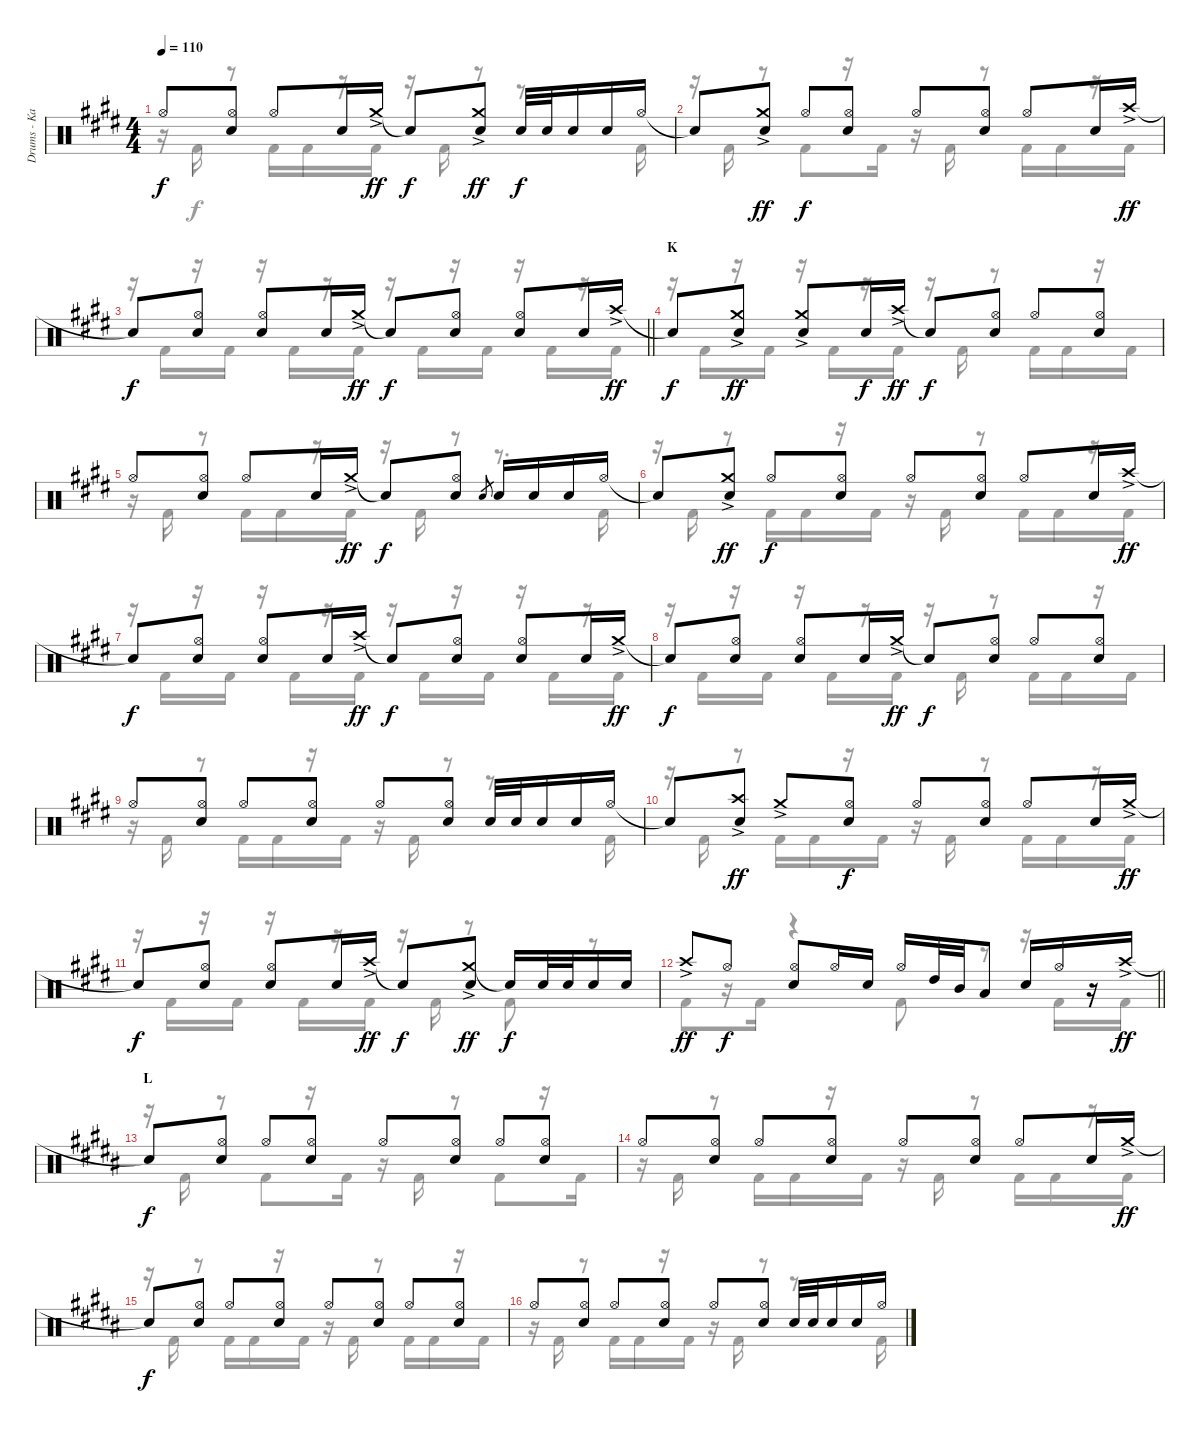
\track ("Drums - Kai" "Drums - Ka") {instrument percussion}
\staff {score}
\articulation defaults
\voice
\ts (4 4)
\tempo 110
\clef neutral
\ks e "Hi-Hat (open)".8{dy f}
("Hi-Hat (open)" "Snare (hit) 2").8 "Hi-Hat (open)".8 "Snare (hit) 2".16 "Crash medium (hit)"{ac}.16{dy ff} "Snare (hit)"{t}.8{dy f} ("Crash medium (hit)"{ac} "Snare (hit) 2").8{dy ff} "Snare (hit) 2".32{dy f} "Snare (hit) 2".32 "Snare (hit) 2".16 "Snare (hit) 2".16 "Hi-Hat (open)".16 |
"Snare (hit)"{t}.8 ("Crash medium (hit)"{ac} "Snare (hit) 2").8{dy ff} "Hi-Hat (open)".8{dy f} ("Hi-Hat (open)" "Snare (hit) 2").8 "Hi-Hat (open)".8 ("Hi-Hat (open)" "Snare (hit) 2").8 "Hi-Hat (open)".8 "Snare (hit) 2".16 "Crash high (hit)"{ac}.16{dy ff} |
\barLineRight lightlight "Snare (hit)"{t}.8{dy f}
("Hi-Hat (open)" "Snare (hit) 2").8 ("Hi-Hat (open)" "Snare (hit) 2").8 "Snare (hit) 2".16 "Crash medium (hit)"{ac}.16{dy ff} "Snare (hit)"{t}.8{dy f} ("Hi-Hat (open)" "Snare (hit) 2").8 ("Hi-Hat (open)" "Snare (hit) 2").8 "Snare (hit) 2".16 "Crash high (hit)"{ac}.16{dy ff} |
\section ("" "K")
"Snare (hit)"{t}.8{dy f} ("Crash medium (hit)"{ac} "Snare (hit) 2").8{dy ff} ("Crash medium (hit)"{ac} "Snare (hit) 2").8 "Snare (hit) 2".16{dy f} "Crash high (hit)"{ac}.16{dy ff} "Snare (hit)"{t}.8{dy f} ("Hi-Hat (open)" "Snare (hit) 2").8 "Hi-Hat (open)".8 ("Hi-Hat (open)" "Snare (hit) 2").8 |
"Hi-Hat (open)".8 ("Hi-Hat (open)" "Snare (hit) 2").8 "Hi-Hat (open)".8 "Snare (hit) 2".16 "Crash medium (hit)"{ac}.16{dy ff} "Snare (hit)"{t}.8{dy f} ("Hi-Hat (open)" "Snare (hit) 2").8 "Snare (hit) 2".8{gr} "Snare (hit) 2".16 "Snare (hit) 2".16 "Snare (hit) 2".16 "Hi-Hat (open)".16 |
"Snare (hit)"{t}.8 ("Crash medium (hit)"{ac} "Snare (hit) 2").8{dy ff} "Hi-Hat (open)".8{dy f} ("Hi-Hat (open)" "Snare (hit) 2").8 "Hi-Hat (open)".8 ("Hi-Hat (open)" "Snare (hit) 2").8 "Hi-Hat (open)".8 "Snare (hit) 2".16 "Crash high (hit)"{ac}.16{dy ff} |
"Snare (hit)"{t}.8{dy f} ("Hi-Hat (open)" "Snare (hit) 2").8 ("Hi-Hat (open)" "Snare (hit) 2").8 "Snare (hit) 2".16 "Crash high (hit)"{ac}.16{dy ff} "Snare (hit)"{t}.8{dy f} ("Hi-Hat (open)" "Snare (hit) 2").8 ("Hi-Hat (open)" "Snare (hit) 2").8 "Snare (hit) 2".16 "Crash medium (hit)"{ac}.16{dy ff} |
"Snare (hit)"{t}.8{dy f} ("Hi-Hat (open)" "Snare (hit) 2").8 ("Hi-Hat (open)" "Snare (hit) 2").8 "Snare (hit) 2".16 "Crash medium (hit)"{ac}.16{dy ff} "Snare (hit)"{t}.8{dy f} ("Hi-Hat (open)" "Snare (hit) 2").8 "Hi-Hat (open)".8 ("Hi-Hat (open)" "Snare (hit) 2").8 |
"Hi-Hat (open)".8 ("Hi-Hat (open)" "Snare (hit) 2").8 "Hi-Hat (open)".8 ("Hi-Hat (open)" "Snare (hit) 2").8 "Hi-Hat (open)".8 ("Hi-Hat (open)" "Snare (hit) 2").8 "Snare (hit) 2".32 "Snare (hit) 2".32 "Snare (hit) 2".16 "Snare (hit) 2".16 "Hi-Hat (open)".16 |
"Snare (hit)"{t}.8 ("Crash high (hit)"{ac} "Snare (hit) 2").8{dy ff} "Crash medium (hit)"{ac}.8 ("Hi-Hat (open)" "Snare (hit) 2").8{dy f} "Hi-Hat (open)".8 ("Hi-Hat (open)" "Snare (hit) 2").8 "Hi-Hat (open)".8 "Snare (hit) 2".16 "Crash medium (hit)"{ac}.16{dy ff} |
"Snare (hit)"{t}.8{dy f} ("Hi-Hat (open)" "Snare (hit) 2").8 ("Hi-Hat (open)" "Snare (hit) 2").8 "Snare (hit) 2".16 "Crash high (hit)"{ac}.16{dy ff} "Snare (hit)"{t}.8{dy f} ("Crash medium (hit)"{ac} "Snare (hit) 2").8{dy ff} "Snare (hit)"{t}.16{dy f} "Snare (hit) 2".32 "Snare (hit) 2".32 "Snare (hit) 2".16 "Snare (hit) 2".16 |
\barLineRight lightlight "Crash high (hit)"{ac}.8{dy ff} "Hi-Hat (open)".8{dy f}
("Hi-Hat (open)" "Snare (hit) 2").8 "Hi-Hat (open)".16 "Snare (hit) 2".16 "Hi-Hat (open)".16 "High Tom (hit)".32 "Mid Tom (hit)".32 "Low Tom (hit)".8 "Snare (hit) 2".16 "Hi-Hat (open)".16 r.16 "Crash high (hit)"{ac}.16{dy ff} |
\section ("" "L")
\ks b "Snare (hit)"{t}.8{dy f}
("Hi-Hat (open)" "Snare (hit) 2").8 "Hi-Hat (open)".8 ("Hi-Hat (open)" "Snare (hit) 2").8 "Hi-Hat (open)".8 ("Hi-Hat (open)" "Snare (hit) 2").8 "Hi-Hat (open)".8 ("Hi-Hat (open)" "Snare (hit) 2").8 |
"Hi-Hat (open)".8 ("Hi-Hat (open)" "Snare (hit) 2").8 "Hi-Hat (open)".8 ("Hi-Hat (open)" "Snare (hit) 2").8 "Hi-Hat (open)".8 ("Hi-Hat (open)" "Snare (hit) 2").8 "Hi-Hat (open)".8 "Snare (hit) 2".16 "Crash medium (hit)"{ac}.16{dy ff} |
"Snare (hit)"{t}.8{dy f} ("Hi-Hat (open)" "Snare (hit) 2").8 "Hi-Hat (open)".8 ("Hi-Hat (open)" "Snare (hit) 2").8 "Hi-Hat (open)".8 ("Hi-Hat (open)" "Snare (hit) 2").8 "Hi-Hat (open)".8 ("Hi-Hat (open)" "Snare (hit) 2").8 |
"Hi-Hat (open)".8 ("Hi-Hat (open)" "Snare (hit) 2").8 "Hi-Hat (open)".8 ("Hi-Hat (open)" "Snare (hit) 2").8 "Hi-Hat (open)".8 ("Hi-Hat (open)" "Snare (hit) 2").8 "Snare (hit) 2".32 "Snare (hit) 2".32 "Snare (hit) 2".16 "Snare (hit) 2".16 "Hi-Hat (open)".16
\voice
\clef neutral
\ottava regular
\simile none
\ks e
r.16{dy f} "Kick (hit) 2".16 r.8 "Kick (hit) 2".16 "Kick (hit) 2".16 r.16 "Kick (hit) 2".16 r.16 "Kick (hit) 2".16 r.8 r.8{d} "Kick (hit) 2".16 |
r.16 "Kick (hit) 2".16 r.8 "Kick (hit) 2".8 r.16 "Kick (hit) 2".16 r.16 "Kick (hit) 2".16 r.8 "Kick (hit) 2".16 "Kick (hit) 2".16 r.16 "Kick (hit) 2".16 |
\barLineRight lightlight
r.16 "Kick (hit) 2".16 r.16 "Kick (hit) 2".16 r.16 "Kick (hit) 2".16 r.16 "Kick (hit) 2".16 r.16 "Kick (hit) 2".16 r.16 "Kick (hit) 2".16 r.16 "Kick (hit) 2".16 r.16 "Kick (hit) 2".16 |
r.16 "Kick (hit) 2".16 r.16 "Kick (hit) 2".16 r.16 "Kick (hit) 2".16 r.16 "Kick (hit) 2".16 r.16 "Kick (hit) 2".16 r.8 "Kick (hit) 2".16 "Kick (hit) 2".16 r.16 "Kick (hit) 2".16 |
r.16 "Kick (hit) 2".16 r.8 "Kick (hit) 2".16 "Kick (hit) 2".16 r.16 "Kick (hit) 2".16 r.16 "Kick (hit) 2".16 r.8 r.8{d} "Kick (hit) 2".16 |
r.16 "Kick (hit) 2".16 r.8 "Kick (hit) 2".16 "Kick (hit) 2".16 r.16 "Kick (hit) 2".16 r.16 "Kick (hit) 2".16 r.8 "Kick (hit) 2".16 "Kick (hit) 2".16 r.16 "Kick (hit) 2".16 |
r.16 "Kick (hit) 2".16 r.16 "Kick (hit) 2".16 r.16 "Kick (hit) 2".16 r.16 "Kick (hit) 2".16 r.16 "Kick (hit) 2".16 r.16 "Kick (hit) 2".16 r.16 "Kick (hit) 2".16 r.16 "Kick (hit) 2".16 |
r.16 "Kick (hit) 2".16 r.16 "Kick (hit) 2".16 r.16 "Kick (hit) 2".16 r.16 "Kick (hit) 2".16 r.16 "Kick (hit) 2".16 r.8 "Kick (hit) 2".16 "Kick (hit) 2".16 r.16 "Kick (hit) 2".16 |
r.16 "Kick (hit) 2".16 r.8 "Kick (hit) 2".16 "Kick (hit) 2".16 r.16 "Kick (hit) 2".16 r.16 "Kick (hit) 2".16 r.8 r.8{d} "Kick (hit) 2".16 |
r.16 "Kick (hit) 2".16 r.8 "Kick (hit) 2".16 "Kick (hit) 2".16 r.16 "Kick (hit) 2".16 r.16 "Kick (hit) 2".16 r.8 "Kick (hit) 2".16 "Kick (hit) 2".16 r.16 "Kick (hit) 2".16 |
r.16 "Kick (hit) 2".16 r.16 "Kick (hit) 2".16 r.16 "Kick (hit) 2".16 r.16 "Kick (hit) 2".16 r.16 "Kick (hit) 2".16 r.8 "Kick (hit) 2".8 r.8 |
\barLineRight lightlight "Kick (hit) 2".8
r.16 "Kick (hit) 2".16 r.4 "Kick (hit) 2".8 r.8 r.16 "Kick (hit) 2".16 r.16 "Kick (hit) 2".16 |
\ks b
r.16 "Kick (hit) 2".16 r.8 "Kick (hit) 2".8 r.16 "Kick (hit) 2".16 r.16 "Kick (hit) 2".16 r.8 "Kick (hit) 2".8 r.16 "Kick (hit) 2".16 |
r.16 "Kick (hit) 2".16 r.8 "Kick (hit) 2".16 "Kick (hit) 2".16 r.16 "Kick (hit) 2".16 r.16 "Kick (hit) 2".16 r.8 "Kick (hit) 2".16 "Kick (hit) 2".16 r.16 "Kick (hit) 2".16 |
r.16 "Kick (hit) 2".16 r.8 "Kick (hit) 2".16 "Kick (hit) 2".16 r.16 "Kick (hit) 2".16 r.16 "Kick (hit) 2".16 r.8 "Kick (hit) 2".16 "Kick (hit) 2".16 r.16 "Kick (hit) 2".16 |
r.16 "Kick (hit) 2".16 r.8 "Kick (hit) 2".16 "Kick (hit) 2".16 r.16 "Kick (hit) 2".16 r.16 "Kick (hit) 2".16 r.8 r.8{d} "Kick (hit) 2".16
